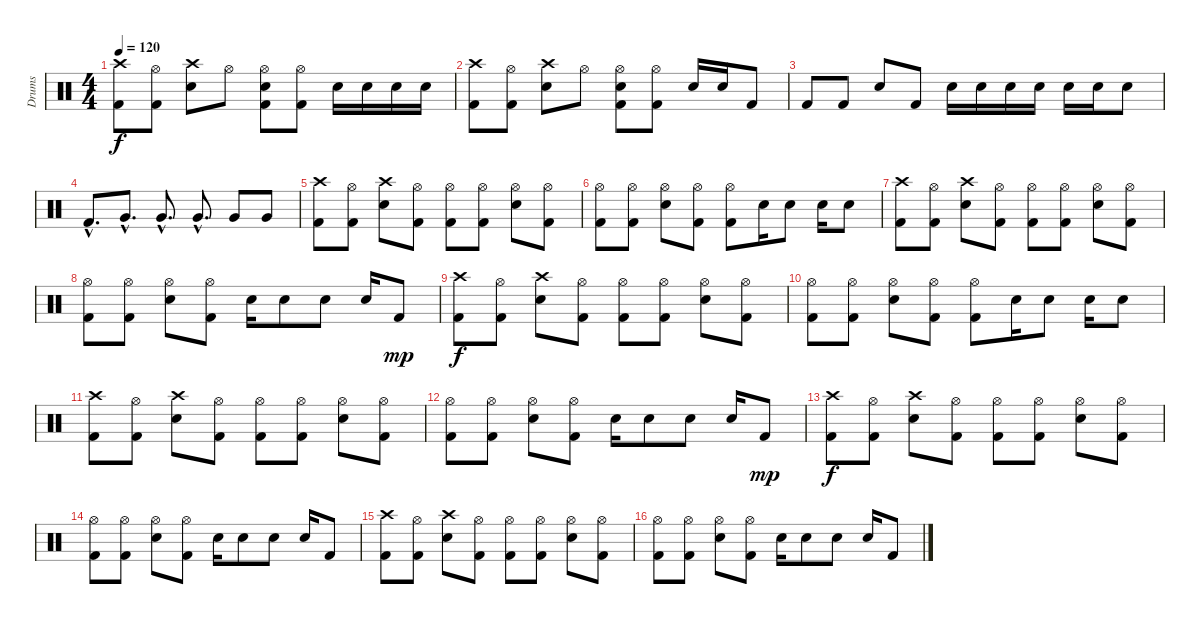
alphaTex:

\track ("Drums" "Drums") {instrument percussion}
\staff {score}
\articulation defaults
\ts (4 4)
\tempo 120
\clef neutral
\ks c
("Crash high (hit)" "Kick (hit) 2").8{dy f} ("Hi-Hat (open)" "Kick (hit) 2").8 ("Crash high (hit)" "Snare (hit) 2").8 "Hi-Hat (open)".8 ("Hi-Hat (open)" "Snare (hit) 2" "Kick (hit) 2").8 ("Hi-Hat (open)" "Kick (hit) 2").8 "Snare (hit) 2".16 "Snare (hit) 2".16 "Snare (hit) 2".16 "Snare (hit) 2".16 |
("Crash high (hit)" "Kick (hit) 2").8 ("Hi-Hat (open)" "Kick (hit) 2").8 ("Crash high (hit)" "Snare (hit) 2").8 "Hi-Hat (open)".8 ("Hi-Hat (open)" "Snare (hit) 2" "Kick (hit) 2").8 ("Hi-Hat (open)" "Kick (hit) 2").8 "Snare (hit) 2".16 "Snare (hit) 2".16 "Kick (hit) 2".8 |
"Kick (hit) 2".8 "Kick (hit) 2".8 "Snare (hit) 2".8 "Kick (hit) 2".8 "Snare (hit) 2".16 "Snare (hit) 2".16 "Snare (hit) 2".16 "Snare (hit) 2".16 "Snare (hit) 2".16 "Snare (hit) 2".16 "Snare (hit) 2".8 |
"Kick (hit) 2"{hac}.8{d} "Very Low Tom (hit)"{hac}.8{d} "Very Low Tom (hit)"{hac}.8{d} "Very Low Tom (hit)"{hac}.8{d} "Very Low Tom (hit)".8 "Very Low Tom (hit)".8 |
("Crash high (hit)" "Kick (hit) 2").8 ("Hi-Hat (open)" "Kick (hit) 2").8 ("Crash high (hit)" "Snare (hit) 2").8 ("Hi-Hat (open)" "Kick (hit) 2").8 ("Hi-Hat (open)" "Kick (hit) 2").8 ("Hi-Hat (open)" "Kick (hit) 2").8 ("Hi-Hat (open)" "Snare (hit) 2").8 ("Hi-Hat (open)" "Kick (hit) 2").8 |
("Hi-Hat (open)" "Kick (hit) 2").8 ("Hi-Hat (open)" "Kick (hit) 2").8 ("Hi-Hat (open)" "Snare (hit) 2").8 ("Hi-Hat (open)" "Kick (hit) 2").8 ("Hi-Hat (open)" "Kick (hit) 2").8 "Snare (hit) 2".16 "Snare (hit) 2".8 "Snare (hit) 2".16 "Snare (hit) 2".8 |
("Crash high (hit)" "Kick (hit) 2").8 ("Hi-Hat (open)" "Kick (hit) 2").8 ("Crash high (hit)" "Snare (hit) 2").8 ("Hi-Hat (open)" "Kick (hit) 2").8 ("Hi-Hat (open)" "Kick (hit) 2").8 ("Hi-Hat (open)" "Kick (hit) 2").8 ("Hi-Hat (open)" "Snare (hit) 2").8 ("Hi-Hat (open)" "Kick (hit) 2").8 |
("Hi-Hat (open)" "Kick (hit) 2").8 ("Hi-Hat (open)" "Kick (hit) 2").8 ("Hi-Hat (open)" "Snare (hit) 2").8 ("Hi-Hat (open)" "Kick (hit) 2").8 "Snare (hit) 2".16 "Snare (hit) 2".8 "Snare (hit) 2".8 "Snare (hit) 2".16 "Kick (hit) 2".8{dy mp} |
("Crash high (hit)" "Kick (hit) 2").8{dy f} ("Hi-Hat (open)" "Kick (hit) 2").8 ("Crash high (hit)" "Snare (hit) 2").8 ("Hi-Hat (open)" "Kick (hit) 2").8 ("Hi-Hat (open)" "Kick (hit) 2").8 ("Hi-Hat (open)" "Kick (hit) 2").8 ("Hi-Hat (open)" "Snare (hit) 2").8 ("Hi-Hat (open)" "Kick (hit) 2").8 |
("Hi-Hat (open)" "Kick (hit) 2").8 ("Hi-Hat (open)" "Kick (hit) 2").8 ("Hi-Hat (open)" "Snare (hit) 2").8 ("Hi-Hat (open)" "Kick (hit) 2").8 ("Hi-Hat (open)" "Kick (hit) 2").8 "Snare (hit) 2".16 "Snare (hit) 2".8 "Snare (hit) 2".16 "Snare (hit) 2".8 |
("Crash high (hit)" "Kick (hit) 2").8 ("Hi-Hat (open)" "Kick (hit) 2").8 ("Crash high (hit)" "Snare (hit) 2").8 ("Hi-Hat (open)" "Kick (hit) 2").8 ("Hi-Hat (open)" "Kick (hit) 2").8 ("Hi-Hat (open)" "Kick (hit) 2").8 ("Hi-Hat (open)" "Snare (hit) 2").8 ("Hi-Hat (open)" "Kick (hit) 2").8 |
("Hi-Hat (open)" "Kick (hit) 2").8 ("Hi-Hat (open)" "Kick (hit) 2").8 ("Hi-Hat (open)" "Snare (hit) 2").8 ("Hi-Hat (open)" "Kick (hit) 2").8 "Snare (hit) 2".16 "Snare (hit) 2".8 "Snare (hit) 2".8 "Snare (hit) 2".16 "Kick (hit) 2".8{dy mp} |
("Crash high (hit)" "Kick (hit) 2").8{dy f} ("Hi-Hat (open)" "Kick (hit) 2").8 ("Crash high (hit)" "Snare (hit) 2").8 ("Hi-Hat (open)" "Kick (hit) 2").8 ("Hi-Hat (open)" "Kick (hit) 2").8 ("Hi-Hat (open)" "Kick (hit) 2").8 ("Hi-Hat (open)" "Snare (hit) 2").8 ("Hi-Hat (open)" "Kick (hit) 2").8 |
("Hi-Hat (open)" "Kick (hit) 2").8 ("Hi-Hat (open)" "Kick (hit) 2").8 ("Hi-Hat (open)" "Snare (hit) 2").8 ("Hi-Hat (open)" "Kick (hit) 2").8 "Snare (hit) 2".16 "Snare (hit) 2".8 "Snare (hit) 2".8 "Snare (hit) 2".16 "Kick (hit) 2".8 |
("Crash high (hit)" "Kick (hit) 2").8 ("Hi-Hat (open)" "Kick (hit) 2").8 ("Crash high (hit)" "Snare (hit) 2").8 ("Hi-Hat (open)" "Kick (hit) 2").8 ("Hi-Hat (open)" "Kick (hit) 2").8 ("Hi-Hat (open)" "Kick (hit) 2").8 ("Hi-Hat (open)" "Snare (hit) 2").8 ("Hi-Hat (open)" "Kick (hit) 2").8 |
("Hi-Hat (open)" "Kick (hit) 2").8 ("Hi-Hat (open)" "Kick (hit) 2").8 ("Hi-Hat (open)" "Snare (hit) 2").8 ("Hi-Hat (open)" "Kick (hit) 2").8 "Snare (hit) 2".16 "Snare (hit) 2".8 "Snare (hit) 2".8 "Snare (hit) 2".16 "Kick (hit) 2".8
